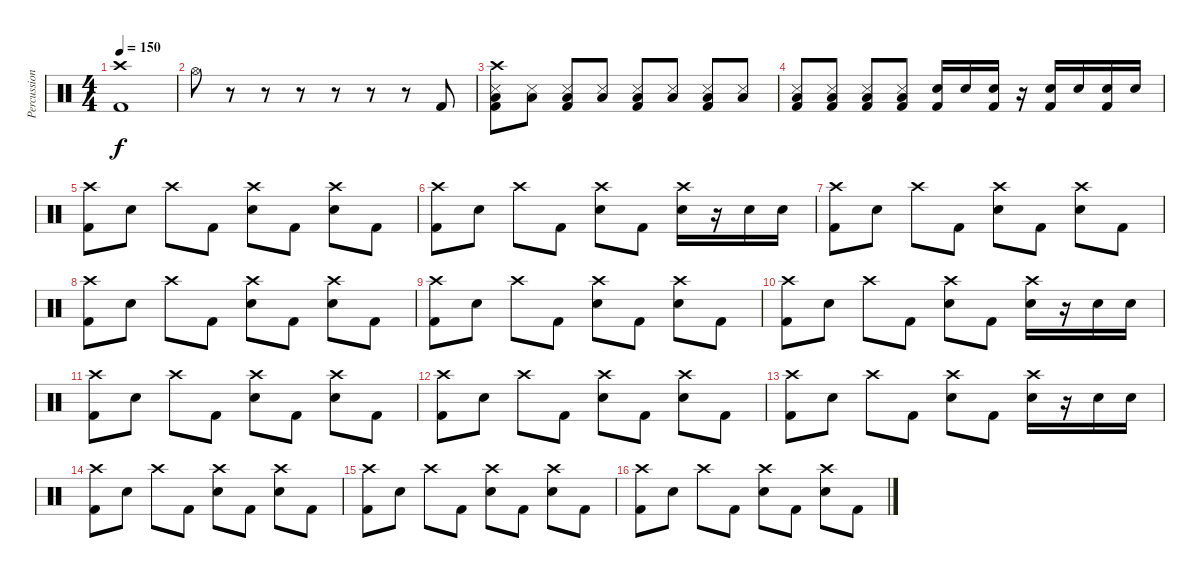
\track ("Percussion" "Percussion") {instrument percussion}
\staff {score}
\articulation defaults
\ts (4 4)
\tempo 150
\clef neutral
\ks c
("Crash high (hit)" "Kick (hit) 2").1{dy f} |
"Hi-Hat (open)".8 r.8 r.8 r.8 r.8 r.8 r.8 "Kick (hit) 2".8 |
("Crash high (hit)" "Snare (side stick) 3" "Low Floor Tom (hit)" "Kick (hit) 2").8 ("Snare (side stick) 3" "Low Floor Tom (hit)").8 ("Snare (side stick) 3" "Low Floor Tom (hit)" "Kick (hit) 2").8 ("Snare (side stick) 3" "Low Floor Tom (hit)").8 ("Snare (side stick) 3" "Low Floor Tom (hit)" "Kick (hit) 2").8 ("Snare (side stick) 3" "Low Floor Tom (hit)").8 ("Snare (side stick) 3" "Low Floor Tom (hit)" "Kick (hit) 2").8 ("Snare (side stick) 3" "Low Floor Tom (hit)").8 |
("Snare (side stick) 3" "Low Floor Tom (hit)" "Kick (hit) 2").8 ("Snare (side stick) 3" "Low Floor Tom (hit)" "Kick (hit) 2").8 ("Snare (side stick) 3" "Low Floor Tom (hit)" "Kick (hit) 2").8 ("Snare (side stick) 3" "Low Floor Tom (hit)" "Kick (hit) 2").8 ("Snare (hit) 2" "Kick (hit) 2").16 "Snare (hit) 2".16 ("Snare (hit) 2" "Kick (hit) 2").16 r.16 ("Snare (hit) 2" "Kick (hit) 2").16 "Snare (hit) 2".16 ("Snare (hit) 2" "Kick (hit) 2").16 "Snare (hit) 2".16 |
("Crash high (hit)" "Kick (hit) 2").8 "Snare (hit) 2".8 "Crash high (hit)".8 "Kick (hit) 2".8 ("Crash high (hit)" "Snare (hit) 2").8 "Kick (hit) 2".8 ("Crash high (hit)" "Snare (hit) 2").8 "Kick (hit) 2".8 |
("Crash high (hit)" "Kick (hit) 2").8 "Snare (hit) 2".8 "Crash high (hit)".8 "Kick (hit) 2".8 ("Crash high (hit)" "Snare (hit) 2").8 "Kick (hit) 2".8 ("Crash high (hit)" "Snare (hit) 2").16 r.16 "Snare (hit) 2".16 "Snare (hit) 2".16 |
("Crash high (hit)" "Kick (hit) 2").8 "Snare (hit) 2".8 "Crash high (hit)".8 "Kick (hit) 2".8 ("Crash high (hit)" "Snare (hit) 2").8 "Kick (hit) 2".8 ("Crash high (hit)" "Snare (hit) 2").8 "Kick (hit) 2".8 |
("Crash high (hit)" "Kick (hit) 2").8 "Snare (hit) 2".8 "Crash high (hit)".8 "Kick (hit) 2".8 ("Crash high (hit)" "Snare (hit) 2").8 "Kick (hit) 2".8 ("Crash high (hit)" "Snare (hit) 2").8 "Kick (hit) 2".8 |
("Crash high (hit)" "Kick (hit) 2").8 "Snare (hit) 2".8 "Crash high (hit)".8 "Kick (hit) 2".8 ("Crash high (hit)" "Snare (hit) 2").8 "Kick (hit) 2".8 ("Crash high (hit)" "Snare (hit) 2").8 "Kick (hit) 2".8 |
("Crash high (hit)" "Kick (hit) 2").8 "Snare (hit) 2".8 "Crash high (hit)".8 "Kick (hit) 2".8 ("Crash high (hit)" "Snare (hit) 2").8 "Kick (hit) 2".8 ("Crash high (hit)" "Snare (hit) 2").16 r.16 "Snare (hit) 2".16 "Snare (hit) 2".16 |
("Crash high (hit)" "Kick (hit) 2").8 "Snare (hit) 2".8 "Crash high (hit)".8 "Kick (hit) 2".8 ("Crash high (hit)" "Snare (hit) 2").8 "Kick (hit) 2".8 ("Crash high (hit)" "Snare (hit) 2").8 "Kick (hit) 2".8 |
("Crash high (hit)" "Kick (hit) 2").8 "Snare (hit) 2".8 "Crash high (hit)".8 "Kick (hit) 2".8 ("Crash high (hit)" "Snare (hit) 2").8 "Kick (hit) 2".8 ("Crash high (hit)" "Snare (hit) 2").8 "Kick (hit) 2".8 |
("Crash high (hit)" "Kick (hit) 2").8 "Snare (hit) 2".8 "Crash high (hit)".8 "Kick (hit) 2".8 ("Crash high (hit)" "Snare (hit) 2").8 "Kick (hit) 2".8 ("Crash high (hit)" "Snare (hit) 2").16 r.16 "Snare (hit) 2".16 "Snare (hit) 2".16 |
("Crash high (hit)" "Kick (hit) 2").8 "Snare (hit) 2".8 "Crash high (hit)".8 "Kick (hit) 2".8 ("Crash high (hit)" "Snare (hit) 2").8 "Kick (hit) 2".8 ("Crash high (hit)" "Snare (hit) 2").8 "Kick (hit) 2".8 |
("Crash high (hit)" "Kick (hit) 2").8 "Snare (hit) 2".8 "Crash high (hit)".8 "Kick (hit) 2".8 ("Crash high (hit)" "Snare (hit) 2").8 "Kick (hit) 2".8 ("Crash high (hit)" "Snare (hit) 2").8 "Kick (hit) 2".8 |
("Crash high (hit)" "Kick (hit) 2").8 "Snare (hit) 2".8 "Crash high (hit)".8 "Kick (hit) 2".8 ("Crash high (hit)" "Snare (hit) 2").8 "Kick (hit) 2".8 ("Crash high (hit)" "Snare (hit) 2").8 "Kick (hit) 2".8
